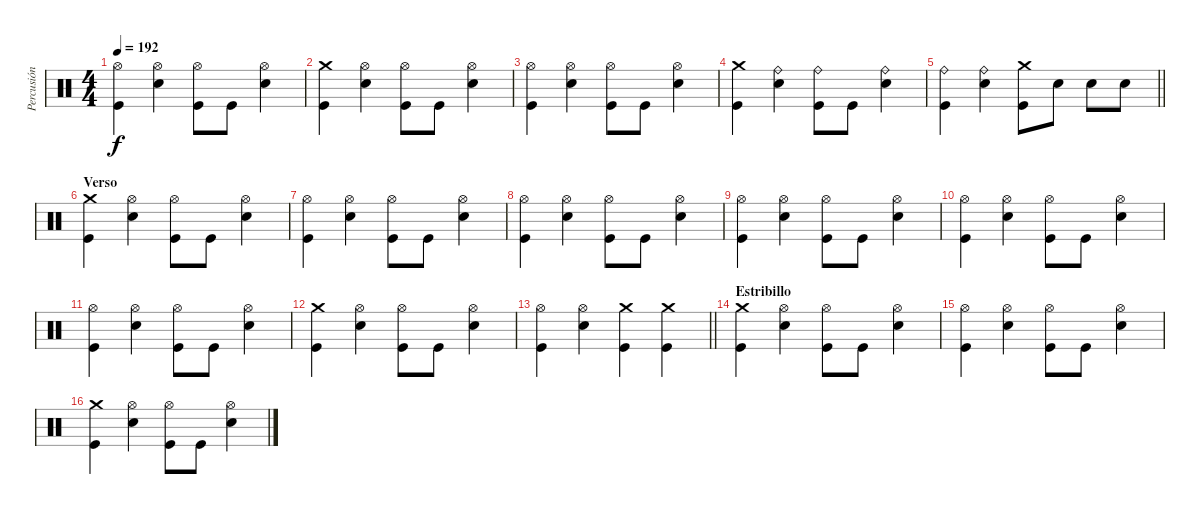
\track ("Percusión" "Percusión") {instrument percussion}
\staff {score}
\articulation defaults
\ts (4 4)
\tempo 192
\clef neutral
\ks c
("Hi-Hat (open)" "Kick (hit)").4{dy f} ("Hi-Hat (open)" "Snare (hit) 2").4 ("Hi-Hat (open)" "Kick (hit)").8 "Kick (hit)".8 ("Hi-Hat (open)" "Snare (hit) 2").4 |
("Crash medium (hit)" "Kick (hit)").4 ("Hi-Hat (open)" "Snare (hit) 2").4 ("Hi-Hat (open)" "Kick (hit)").8 "Kick (hit)".8 ("Hi-Hat (open)" "Snare (hit) 2").4 |
("Hi-Hat (open)" "Kick (hit)").4 ("Hi-Hat (open)" "Snare (hit) 2").4 ("Hi-Hat (open)" "Kick (hit)").8 "Kick (hit)".8 ("Hi-Hat (open)" "Snare (hit) 2").4 |
("Crash medium (hit)" "Kick (hit)").4 ("Ride (bell)" "Snare (hit) 2").4 ("Ride (bell)" "Kick (hit)").8 "Kick (hit)".8 ("Ride (bell)" "Snare (hit) 2").4 |
\barLineRight lightlight
("Ride (bell)" "Kick (hit)").4 ("Ride (bell)" "Snare (hit) 2").4 ("Crash medium (hit)" "Kick (hit)").8 "Snare (hit) 2".8 "Snare (hit) 2".8 "Snare (hit) 2".8 |
\section ("" "Verso")
("Crash medium (hit)" "Kick (hit)").4 ("Hi-Hat (open)" "Snare (hit) 2").4 ("Hi-Hat (open)" "Kick (hit)").8 "Kick (hit)".8 ("Hi-Hat (open)" "Snare (hit) 2").4 |
("Hi-Hat (open)" "Kick (hit)").4 ("Hi-Hat (open)" "Snare (hit) 2").4 ("Hi-Hat (open)" "Kick (hit)").8 "Kick (hit)".8 ("Hi-Hat (open)" "Snare (hit) 2").4 |
("Hi-Hat (open)" "Kick (hit)").4 ("Hi-Hat (open)" "Snare (hit) 2").4 ("Hi-Hat (open)" "Kick (hit)").8 "Kick (hit)".8 ("Hi-Hat (open)" "Snare (hit) 2").4 |
("Hi-Hat (open)" "Kick (hit)").4 ("Hi-Hat (open)" "Snare (hit) 2").4 ("Hi-Hat (open)" "Kick (hit)").8 "Kick (hit)".8 ("Hi-Hat (open)" "Snare (hit) 2").4 |
("Hi-Hat (open)" "Kick (hit)").4 ("Hi-Hat (open)" "Snare (hit) 2").4 ("Hi-Hat (open)" "Kick (hit)").8 "Kick (hit)".8 ("Hi-Hat (open)" "Snare (hit) 2").4 |
("Hi-Hat (open)" "Kick (hit)").4 ("Hi-Hat (open)" "Snare (hit) 2").4 ("Hi-Hat (open)" "Kick (hit)").8 "Kick (hit)".8 ("Hi-Hat (open)" "Snare (hit) 2").4 |
("Crash medium (hit)" "Kick (hit)").4 ("Hi-Hat (open)" "Snare (hit) 2").4 ("Hi-Hat (open)" "Kick (hit)").8 "Kick (hit)".8 ("Hi-Hat (open)" "Snare (hit) 2").4 |
\barLineRight lightlight
("Hi-Hat (open)" "Kick (hit)").4 ("Hi-Hat (open)" "Snare (hit) 2").4 ("Crash medium (hit)" "Kick (hit)").4 ("Crash medium (hit)" "Kick (hit)").4 |
\section ("" "Estribillo")
("Crash medium (hit)" "Kick (hit)").4 ("Hi-Hat (open)" "Snare (hit) 2").4 ("Hi-Hat (open)" "Kick (hit)").8 "Kick (hit)".8 ("Hi-Hat (open)" "Snare (hit) 2").4 |
("Hi-Hat (open)" "Kick (hit)").4 ("Hi-Hat (open)" "Snare (hit) 2").4 ("Hi-Hat (open)" "Kick (hit)").8 "Kick (hit)".8 ("Hi-Hat (open)" "Snare (hit) 2").4 |
("Crash medium (hit)" "Kick (hit)").4 ("Hi-Hat (open)" "Snare (hit) 2").4 ("Hi-Hat (open)" "Kick (hit)").8 "Kick (hit)".8 ("Hi-Hat (open)" "Snare (hit) 2").4
